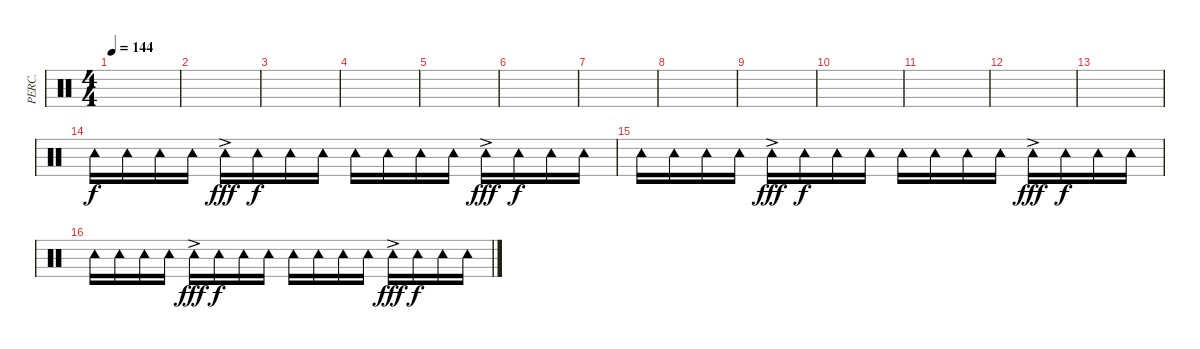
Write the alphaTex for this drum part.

\track ("PERC." "PERC.") {instrument percussion}
\staff {score}
\articulation defaults
\ts (4 4)
\tempo 144
\clef neutral
\ks c
|
|
|
|
|
|
|
|
|
|
|
|
|
"Tambourine (hit)".16 "Tambourine (hit)".16 "Tambourine (hit)".16 "Tambourine (hit)".16 "Tambourine (hit)"{ac}.16{dy fff} "Tambourine (hit)".16{dy f} "Tambourine (hit)".16 "Tambourine (hit)".16 "Tambourine (hit)".16 "Tambourine (hit)".16 "Tambourine (hit)".16 "Tambourine (hit)".16 "Tambourine (hit)"{ac}.16{dy fff} "Tambourine (hit)".16{dy f} "Tambourine (hit)".16 "Tambourine (hit)".16 |
"Tambourine (hit)".16 "Tambourine (hit)".16 "Tambourine (hit)".16 "Tambourine (hit)".16 "Tambourine (hit)"{ac}.16{dy fff} "Tambourine (hit)".16{dy f} "Tambourine (hit)".16 "Tambourine (hit)".16 "Tambourine (hit)".16 "Tambourine (hit)".16 "Tambourine (hit)".16 "Tambourine (hit)".16 "Tambourine (hit)"{ac}.16{dy fff} "Tambourine (hit)".16{dy f} "Tambourine (hit)".16 "Tambourine (hit)".16 |
"Tambourine (hit)".16 "Tambourine (hit)".16 "Tambourine (hit)".16 "Tambourine (hit)".16 "Tambourine (hit)"{ac}.16{dy fff} "Tambourine (hit)".16{dy f} "Tambourine (hit)".16 "Tambourine (hit)".16 "Tambourine (hit)".16 "Tambourine (hit)".16 "Tambourine (hit)".16 "Tambourine (hit)".16 "Tambourine (hit)"{ac}.16{dy fff} "Tambourine (hit)".16{dy f} "Tambourine (hit)".16 "Tambourine (hit)".16
